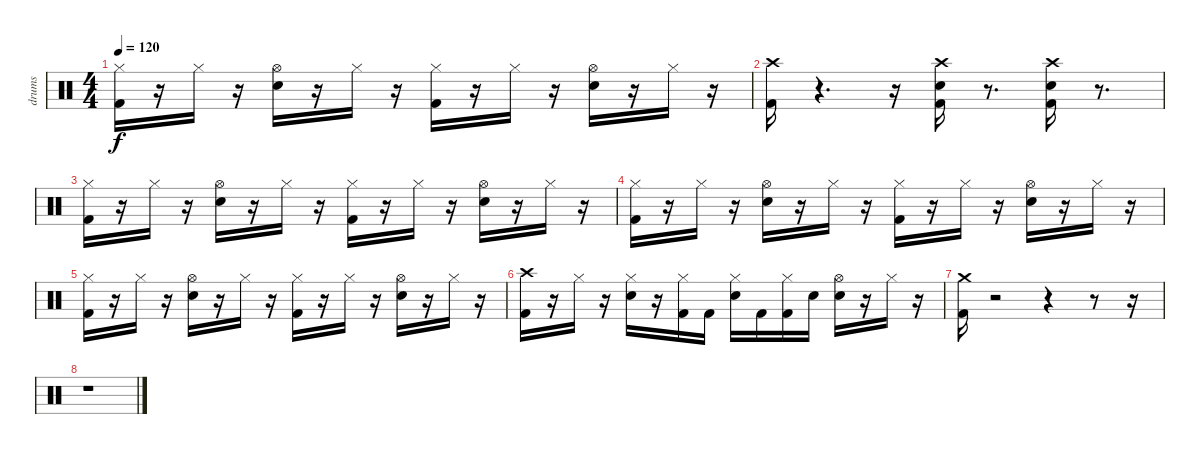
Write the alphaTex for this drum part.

\track ("drums" "drums") {instrument percussion}
\staff {score}
\articulation defaults
\ts (4 4)
\tempo 120
\clef neutral
\ks c
("Hi-Hat (closed)" "Kick (hit) 2").16{dy f} r.16 "Hi-Hat (closed)".16 r.16 ("Hi-Hat (open)" "Snare (hit) 2").16 r.16 "Hi-Hat (closed)".16 r.16 ("Hi-Hat (closed)" "Kick (hit) 2").16 r.16 "Hi-Hat (closed)".16 r.16 ("Hi-Hat (open)" "Electric Snare (hit)").16 r.16 "Hi-Hat (closed)".16 r.16 |
("Crash high (hit)" "Kick (hit) 2").16 r.4{d} r.16 ("Crash high (hit)" "Kick (hit) 2" "Snare (hit) 2").16 r.8{d} ("Kick (hit) 2" "Snare (hit) 2" "Crash high (hit)").16 r.8{d} |
("Hi-Hat (closed)" "Kick (hit) 2").16 r.16 "Hi-Hat (closed)".16 r.16 ("Hi-Hat (open)" "Snare (hit) 2").16 r.16 "Hi-Hat (closed)".16 r.16 ("Hi-Hat (closed)" "Kick (hit) 2").16 r.16 "Hi-Hat (closed)".16 r.16 ("Hi-Hat (open)" "Electric Snare (hit)").16 r.16 "Hi-Hat (closed)".16 r.16 |
("Hi-Hat (closed)" "Kick (hit) 2").16 r.16 "Hi-Hat (closed)".16 r.16 ("Hi-Hat (open)" "Electric Snare (hit)").16 r.16 "Hi-Hat (closed)".16 r.16 ("Hi-Hat (closed)" "Kick (hit) 2").16 r.16 "Hi-Hat (closed)".16 r.16 ("Hi-Hat (open)" "Snare (hit) 2").16 r.16 "Hi-Hat (closed)".16 r.16 |
("Hi-Hat (closed)" "Kick (hit) 2").16 r.16 "Hi-Hat (closed)".16 r.16 ("Hi-Hat (open)" "Snare (hit) 2").16 r.16 "Hi-Hat (closed)".16 r.16 ("Hi-Hat (closed)" "Kick (hit) 2").16 r.16 "Hi-Hat (closed)".16 r.16 ("Hi-Hat (open)" "Electric Snare (hit)").16 r.16 "Hi-Hat (closed)".16 r.16 |
("Crash high (hit)" "Kick (hit) 2").16 r.16 "Hi-Hat (closed)".16 r.16 ("Hi-Hat (closed)" "Snare (hit) 2").16 r.16 ("Hi-Hat (closed)" "Kick (hit) 2").16 "Kick (hit) 2".16 ("Hi-Hat (closed)" "Electric Snare (hit)").16 "Kick (hit) 2".16 ("Hi-Hat (closed)" "Kick (hit) 2").16 "Electric Snare (hit)".16 ("Hi-Hat (open)" "Electric Snare (hit)").16 r.16 "Hi-Hat (closed)".16 r.16 |
("Crash medium (hit)" "Kick (hit) 2").16 r.2 r.4 r.8 r.16 |
r.1
